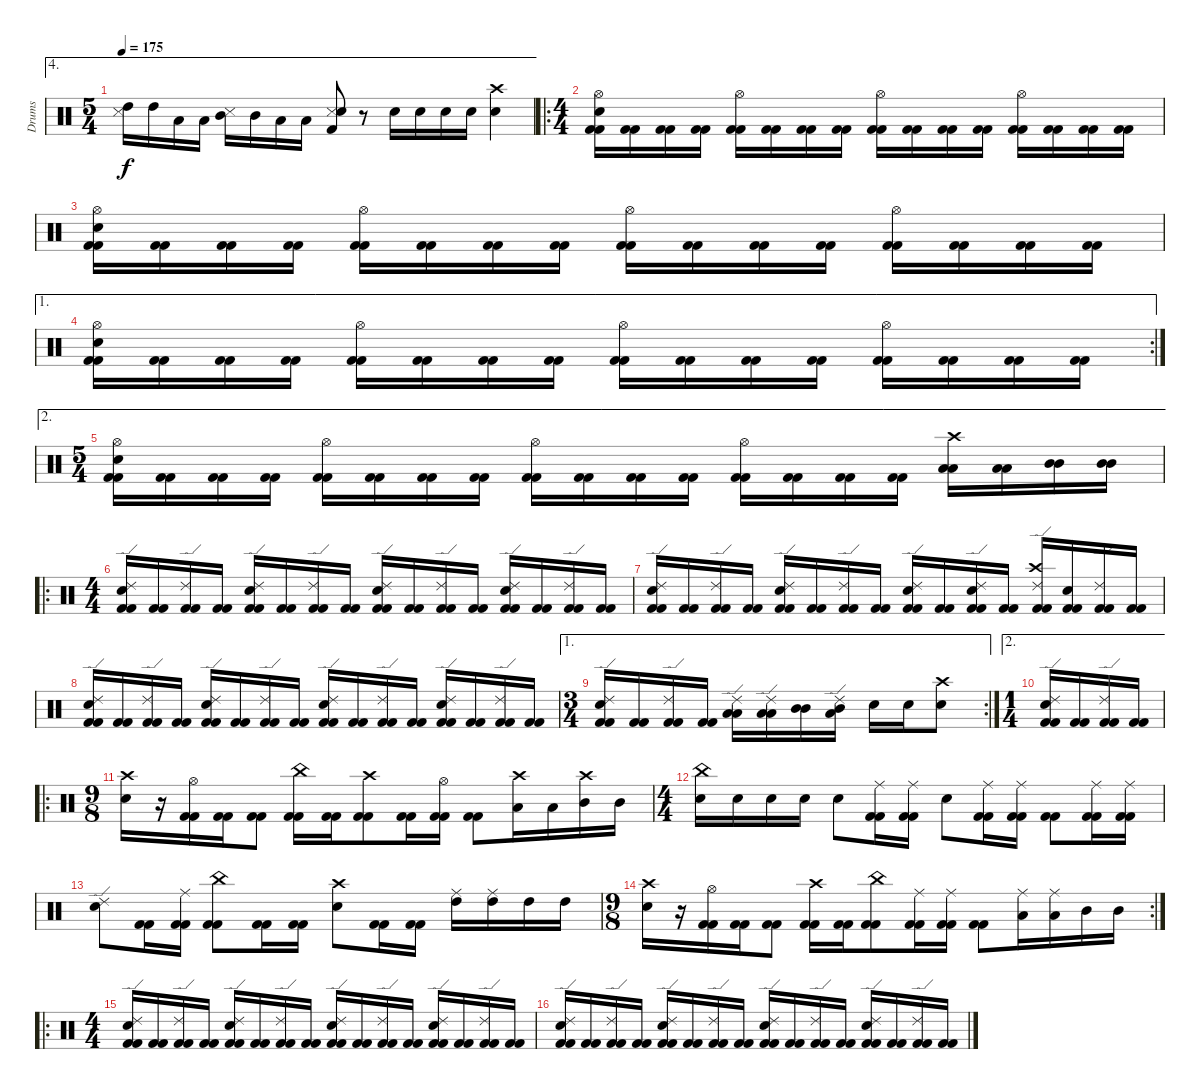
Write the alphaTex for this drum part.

\track ("Drums " "Drums ") {instrument percussion}
\staff {score}
\articulation defaults
\ae 4
\ts (5 4)
\tempo 175
\clef neutral
\ks c
("Metronome (hit)" "High Tom (hit)").16{dy f} "High Tom (hit)".16 "Low Tom (hit)".16 "Low Tom (hit)".16 ("Metronome (hit)" "Mid Tom (hit)").16 "Mid Tom (hit)".16 "Low Tom (hit)".16 "Low Tom (hit)".16 ("Metronome (hit)" "Electric Snare (hit)" "Kick (hit) 2").8 r.8 "Electric Snare (hit)".16 "Electric Snare (hit)".16 "Electric Snare (hit)".16 "Electric Snare (hit)".16 ("Crash high (hit)" "Electric Snare (hit)").4 |
\ro
\ts (4 4)
("Hi-Hat (open)" "Electric Snare (hit)" "Kick (hit) 2" "Kick (hit) 2").16 ("Kick (hit) 2" "Kick (hit) 2").16 ("Kick (hit) 2" "Kick (hit) 2").16 ("Kick (hit) 2" "Kick (hit) 2").16 ("Hi-Hat (open)" "Kick (hit) 2" "Kick (hit) 2").16 ("Kick (hit) 2" "Kick (hit) 2").16 ("Kick (hit) 2" "Kick (hit) 2").16 ("Kick (hit) 2" "Kick (hit) 2").16 ("Hi-Hat (open)" "Kick (hit) 2" "Kick (hit) 2").16 ("Kick (hit) 2" "Kick (hit) 2").16 ("Kick (hit) 2" "Kick (hit) 2").16 ("Kick (hit) 2" "Kick (hit) 2").16 ("Hi-Hat (open)" "Kick (hit) 2" "Kick (hit) 2").16 ("Kick (hit) 2" "Kick (hit) 2").16 ("Kick (hit) 2" "Kick (hit) 2").16 ("Kick (hit) 2" "Kick (hit) 2").16 |
("Hi-Hat (open)" "Electric Snare (hit)" "Kick (hit) 2" "Kick (hit) 2").16 ("Kick (hit) 2" "Kick (hit) 2").16 ("Kick (hit) 2" "Kick (hit) 2").16 ("Kick (hit) 2" "Kick (hit) 2").16 ("Hi-Hat (open)" "Kick (hit) 2" "Kick (hit) 2").16 ("Kick (hit) 2" "Kick (hit) 2").16 ("Kick (hit) 2" "Kick (hit) 2").16 ("Kick (hit) 2" "Kick (hit) 2").16 ("Hi-Hat (open)" "Kick (hit) 2" "Kick (hit) 2").16 ("Kick (hit) 2" "Kick (hit) 2").16 ("Kick (hit) 2" "Kick (hit) 2").16 ("Kick (hit) 2" "Kick (hit) 2").16 ("Hi-Hat (open)" "Kick (hit) 2" "Kick (hit) 2").16 ("Kick (hit) 2" "Kick (hit) 2").16 ("Kick (hit) 2" "Kick (hit) 2").16 ("Kick (hit) 2" "Kick (hit) 2").16 |
\ae 1
\rc 2
("Hi-Hat (open)" "Electric Snare (hit)" "Kick (hit) 2" "Kick (hit) 2").16 ("Kick (hit) 2" "Kick (hit) 2").16 ("Kick (hit) 2" "Kick (hit) 2").16 ("Kick (hit) 2" "Kick (hit) 2").16 ("Hi-Hat (open)" "Kick (hit) 2" "Kick (hit) 2").16 ("Kick (hit) 2" "Kick (hit) 2").16 ("Kick (hit) 2" "Kick (hit) 2").16 ("Kick (hit) 2" "Kick (hit) 2").16 ("Hi-Hat (open)" "Kick (hit) 2" "Kick (hit) 2").16 ("Kick (hit) 2" "Kick (hit) 2").16 ("Kick (hit) 2" "Kick (hit) 2").16 ("Kick (hit) 2" "Kick (hit) 2").16 ("Hi-Hat (open)" "Kick (hit) 2" "Kick (hit) 2").16 ("Kick (hit) 2" "Kick (hit) 2").16 ("Kick (hit) 2" "Kick (hit) 2").16 ("Kick (hit) 2" "Kick (hit) 2").16 |
\ae 2
\ts (5 4)
("Hi-Hat (open)" "Electric Snare (hit)" "Kick (hit) 2" "Kick (hit) 2").16 ("Kick (hit) 2" "Kick (hit) 2").16 ("Kick (hit) 2" "Kick (hit) 2").16 ("Kick (hit) 2" "Kick (hit) 2").16 ("Hi-Hat (open)" "Kick (hit) 2" "Kick (hit) 2").16 ("Kick (hit) 2" "Kick (hit) 2").16 ("Kick (hit) 2" "Kick (hit) 2").16 ("Kick (hit) 2" "Kick (hit) 2").16 ("Hi-Hat (open)" "Kick (hit) 2" "Kick (hit) 2").16 ("Kick (hit) 2" "Kick (hit) 2").16 ("Kick (hit) 2" "Kick (hit) 2").16 ("Kick (hit) 2" "Kick (hit) 2").16 ("Hi-Hat (open)" "Kick (hit) 2" "Kick (hit) 2").16 ("Kick (hit) 2" "Kick (hit) 2").16 ("Kick (hit) 2" "Kick (hit) 2").16 ("Kick (hit) 2" "Kick (hit) 2").16 ("Crash high (hit)" "Low Tom (hit)" "Low Tom (hit)").16 ("Low Tom (hit)" "Low Tom (hit)").16 ("Mid Tom (hit)" "Mid Tom (hit)").16 ("Mid Tom (hit)" "Mid Tom (hit)").16 |
\ro
\ts (4 4)
("Ride (edge) 2" "Electric Snare (hit)" "Kick (hit) 2" "Kick (hit) 2").16 ("Kick (hit) 2" "Kick (hit) 2").16 ("Ride (edge) 2" "Kick (hit) 2" "Kick (hit) 2").16 ("Kick (hit) 2" "Kick (hit) 2").16 ("Ride (edge) 2" "Electric Snare (hit)" "Kick (hit) 2" "Kick (hit) 2").16 ("Kick (hit) 2" "Kick (hit) 2").16 ("Ride (edge) 2" "Kick (hit) 2" "Kick (hit) 2").16 ("Kick (hit) 2" "Kick (hit) 2").16 ("Ride (edge) 2" "Electric Snare (hit)" "Kick (hit) 2" "Kick (hit) 2").16 ("Kick (hit) 2" "Kick (hit) 2").16 ("Ride (edge) 2" "Kick (hit) 2" "Kick (hit) 2").16 ("Kick (hit) 2" "Kick (hit) 2").16 ("Ride (edge) 2" "Electric Snare (hit)" "Kick (hit) 2" "Kick (hit) 2").16 ("Kick (hit) 2" "Kick (hit) 2").16 ("Ride (edge) 2" "Kick (hit) 2" "Kick (hit) 2").16 ("Kick (hit) 2" "Kick (hit) 2").16 |
("Ride (edge) 2" "Electric Snare (hit)" "Kick (hit) 2" "Kick (hit) 2").16 ("Kick (hit) 2" "Kick (hit) 2").16 ("Ride (edge) 2" "Kick (hit) 2" "Kick (hit) 2").16 ("Kick (hit) 2" "Kick (hit) 2").16 ("Ride (edge) 2" "Electric Snare (hit)" "Kick (hit) 2" "Kick (hit) 2").16 ("Kick (hit) 2" "Kick (hit) 2").16 ("Ride (edge) 2" "Kick (hit) 2" "Kick (hit) 2").16 ("Kick (hit) 2" "Kick (hit) 2").16 ("Ride (edge) 2" "Electric Snare (hit)" "Kick (hit) 2" "Kick (hit) 2").16 ("Kick (hit) 2" "Kick (hit) 2").16 ("Ride (edge) 2" "Electric Snare (hit)" "Kick (hit) 2" "Kick (hit) 2").16 ("Kick (hit) 2" "Kick (hit) 2").16 ("Ride (edge) 2" "Crash high (hit)" "Kick (hit) 2" "Kick (hit) 2").16 ("Electric Snare (hit)" "Kick (hit) 2" "Kick (hit) 2").16 ("Ride (edge) 2" "Kick (hit) 2" "Kick (hit) 2").16 ("Kick (hit) 2" "Kick (hit) 2").16 |
("Ride (edge) 2" "Electric Snare (hit)" "Kick (hit) 2" "Kick (hit) 2").16 ("Kick (hit) 2" "Kick (hit) 2").16 ("Ride (edge) 2" "Kick (hit) 2" "Kick (hit) 2").16 ("Kick (hit) 2" "Kick (hit) 2").16 ("Ride (edge) 2" "Electric Snare (hit)" "Kick (hit) 2" "Kick (hit) 2").16 ("Kick (hit) 2" "Kick (hit) 2").16 ("Ride (edge) 2" "Kick (hit) 2" "Kick (hit) 2").16 ("Kick (hit) 2" "Kick (hit) 2").16 ("Ride (edge) 2" "Electric Snare (hit)" "Kick (hit) 2" "Kick (hit) 2").16 ("Kick (hit) 2" "Kick (hit) 2").16 ("Ride (edge) 2" "Kick (hit) 2" "Kick (hit) 2").16 ("Kick (hit) 2" "Kick (hit) 2").16 ("Ride (edge) 2" "Electric Snare (hit)" "Kick (hit) 2" "Kick (hit) 2").16 ("Kick (hit) 2" "Kick (hit) 2").16 ("Ride (edge) 2" "Kick (hit) 2" "Kick (hit) 2").16 ("Kick (hit) 2" "Kick (hit) 2").16 |
\ae 1
\rc 2
\ts (3 4)
("Ride (edge) 2" "Electric Snare (hit)" "Kick (hit) 2" "Kick (hit) 2").16 ("Kick (hit) 2" "Kick (hit) 2").16 ("Ride (edge) 2" "Kick (hit) 2" "Kick (hit) 2").16 ("Kick (hit) 2" "Kick (hit) 2").16 ("Ride (edge) 2" "Low Tom (hit)" "Low Tom (hit)").16 ("Ride (edge) 2" "Low Tom (hit)" "Low Tom (hit)").16 ("Mid Tom (hit)" "Mid Tom (hit)").16 ("Ride (edge) 2" "Mid Tom (hit)" "Low Tom (hit)").16 "Electric Snare (hit)".16 "Electric Snare (hit)".16 ("Crash high (hit)" "Electric Snare (hit)").8 |
\ae 2
\ts (1 4)
("Ride (edge) 2" "Electric Snare (hit)" "Kick (hit) 2" "Kick (hit) 2").16 ("Kick (hit) 2" "Kick (hit) 2").16 ("Ride (edge) 2" "Kick (hit) 2" "Kick (hit) 2").16 ("Kick (hit) 2" "Kick (hit) 2").16 |
\ro
\ts (9 8)
("Crash high (hit)" "Electric Snare (hit)").16 r.16 ("Hi-Hat (open)" "Kick (hit) 2" "Kick (hit) 2").16 ("Kick (hit) 2" "Kick (hit) 2").16 ("Kick (hit) 2" "Kick (hit) 2").8 ("China (hit)" "Kick (hit) 2" "Kick (hit) 2").16 ("Kick (hit) 2" "Kick (hit) 2").16 ("Crash high (hit)" "Kick (hit) 2" "Kick (hit) 2").8 ("Kick (hit) 2" "Kick (hit) 2").16 ("Hi-Hat (open)" "Kick (hit) 2" "Kick (hit) 2").16 ("Kick (hit) 2" "Kick (hit) 2").8 ("Crash high (hit)" "Low Tom (hit)").16 "Low Tom (hit)".16 ("Crash high (hit)" "Mid Tom (hit)").16 "Mid Tom (hit)".16 |
\ts (4 4)
("China (hit)" "Electric Snare (hit)").16 "Electric Snare (hit)".16 "Electric Snare (hit)".16 "Electric Snare (hit)".16 "Electric Snare (hit)".8 ("Ride (middle)" "Kick (hit) 2" "Kick (hit) 2").16 ("Ride (middle)" "Kick (hit) 2" "Kick (hit) 2").16 "Electric Snare (hit)".8 ("Ride (middle)" "Kick (hit) 2" "Kick (hit) 2").16 ("Ride (middle)" "Kick (hit) 2" "Kick (hit) 2").16 ("Kick (hit) 2" "Kick (hit) 2").8 ("Ride (middle)" "Kick (hit) 2" "Kick (hit) 2").16 ("Ride (middle)" "Kick (hit) 2" "Kick (hit) 2").16 |
("Ride (edge) 2" "Electric Snare (hit)").8 ("Kick (hit) 2" "Kick (hit) 2").16 ("Ride (middle)" "Kick (hit) 2" "Kick (hit) 2").16 ("China (hit)" "Kick (hit) 2" "Kick (hit) 2").8 ("Kick (hit) 2" "Kick (hit) 2").16 ("Kick (hit) 2" "Kick (hit) 2").16 ("Crash high (hit)" "Electric Snare (hit)").8 ("Kick (hit) 2" "Kick (hit) 2").16 ("Kick (hit) 2" "Kick (hit) 2").16 ("Ride (middle)" "High Tom (hit)").16 ("Ride (middle)" "High Tom (hit)").16 "High Tom (hit)".16 "High Tom (hit)".16 |
\rc 2
\ts (9 8)
("Crash high (hit)" "Electric Snare (hit)").16 r.16 ("Hi-Hat (open)" "Kick (hit) 2" "Kick (hit) 2").16 ("Kick (hit) 2" "Kick (hit) 2").16 ("Kick (hit) 2" "Kick (hit) 2").8 ("Crash high (hit)" "Kick (hit) 2" "Kick (hit) 2").16 ("Kick (hit) 2" "Kick (hit) 2").16 ("China (hit)" "Kick (hit) 2" "Kick (hit) 2").8 ("Ride (middle)" "Kick (hit) 2" "Kick (hit) 2").16 ("Ride (middle)" "Kick (hit) 2" "Kick (hit) 2").16 ("Kick (hit) 2" "Kick (hit) 2").8 ("Ride (middle)" "Low Tom (hit)").16 ("Ride (middle)" "Low Tom (hit)").16 "Mid Tom (hit)".16 "Mid Tom (hit)".16 |
\ro
\ts (4 4)
("Ride (edge) 2" "Electric Snare (hit)" "Kick (hit) 2" "Kick (hit) 2").16 ("Kick (hit) 2" "Kick (hit) 2").16 ("Ride (edge) 2" "Kick (hit) 2" "Kick (hit) 2").16 ("Kick (hit) 2" "Kick (hit) 2").16 ("Ride (edge) 2" "Electric Snare (hit)" "Kick (hit) 2" "Kick (hit) 2").16 ("Kick (hit) 2" "Kick (hit) 2").16 ("Ride (edge) 2" "Kick (hit) 2" "Kick (hit) 2").16 ("Kick (hit) 2" "Kick (hit) 2").16 ("Ride (edge) 2" "Electric Snare (hit)" "Kick (hit) 2" "Kick (hit) 2").16 ("Kick (hit) 2" "Kick (hit) 2").16 ("Ride (edge) 2" "Kick (hit) 2" "Kick (hit) 2").16 ("Kick (hit) 2" "Kick (hit) 2").16 ("Ride (edge) 2" "Electric Snare (hit)" "Kick (hit) 2" "Kick (hit) 2").16 ("Kick (hit) 2" "Kick (hit) 2").16 ("Ride (edge) 2" "Kick (hit) 2" "Kick (hit) 2").16 ("Kick (hit) 2" "Kick (hit) 2").16 |
("Ride (edge) 2" "Electric Snare (hit)" "Kick (hit) 2" "Kick (hit) 2").16 ("Kick (hit) 2" "Kick (hit) 2").16 ("Ride (edge) 2" "Kick (hit) 2" "Kick (hit) 2").16 ("Kick (hit) 2" "Kick (hit) 2").16 ("Ride (edge) 2" "Electric Snare (hit)" "Kick (hit) 2" "Kick (hit) 2").16 ("Kick (hit) 2" "Kick (hit) 2").16 ("Ride (edge) 2" "Kick (hit) 2" "Kick (hit) 2").16 ("Kick (hit) 2" "Kick (hit) 2").16 ("Ride (edge) 2" "Electric Snare (hit)" "Kick (hit) 2" "Kick (hit) 2").16 ("Kick (hit) 2" "Kick (hit) 2").16 ("Ride (edge) 2" "Kick (hit) 2" "Kick (hit) 2").16 ("Kick (hit) 2" "Kick (hit) 2").16 ("Ride (edge) 2" "Electric Snare (hit)" "Kick (hit) 2" "Kick (hit) 2").16 ("Kick (hit) 2" "Kick (hit) 2").16 ("Ride (edge) 2" "Kick (hit) 2" "Kick (hit) 2").16 ("Kick (hit) 2" "Kick (hit) 2").16
